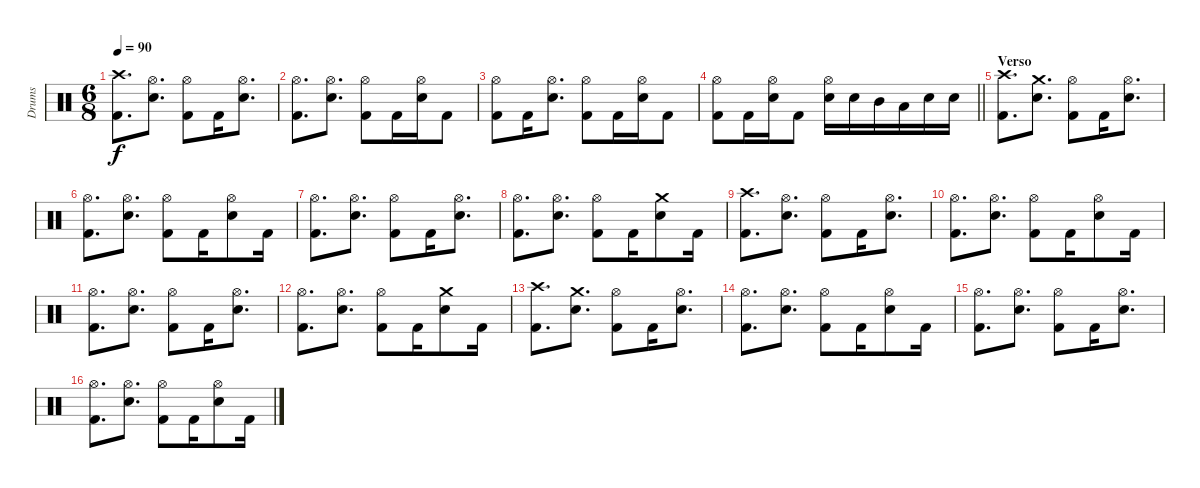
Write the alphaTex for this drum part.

\track ("Drums" "Drums") {instrument percussion}
\staff {score}
\articulation defaults
\ts (6 8)
\section ("" "")
\tempo 90
\clef neutral
\ks c
("Kick (hit) 2" "Crash high (hit)").8{d dy f} ("Electric Snare (hit)" "Hi-Hat (open)").8{d} ("Kick (hit) 2" "Hi-Hat (open)").8 "Kick (hit) 2".16 ("Electric Snare (hit)" "Hi-Hat (open)").8{d} |
("Kick (hit) 2" "Hi-Hat (open)").8{d} ("Electric Snare (hit)" "Hi-Hat (open)").8{d} ("Kick (hit) 2" "Hi-Hat (open)").8 "Kick (hit) 2".16 ("Electric Snare (hit)" "Hi-Hat (open)").16 "Kick (hit) 2".8 |
("Kick (hit) 2" "Hi-Hat (open)").8 "Kick (hit) 2".16 ("Electric Snare (hit)" "Hi-Hat (open)").8{d} ("Kick (hit) 2" "Hi-Hat (open)").8 "Kick (hit) 2".16 ("Electric Snare (hit)" "Hi-Hat (open)").16 "Kick (hit) 2".8 |
\barLineRight lightlight
("Kick (hit) 2" "Hi-Hat (open)").8 "Kick (hit) 2".16 ("Electric Snare (hit)" "Hi-Hat (open)").16 "Kick (hit) 2".8 ("Electric Snare (hit)" "Hi-Hat (open)").16 "Electric Snare (hit)".16 "Mid Tom (hit)".16 "Low Tom (hit)".16 "Electric Snare (hit)".16 "Electric Snare (hit)".16 |
\section ("" "Verso")
("Kick (hit) 2" "Crash high (hit)").8{d} ("Electric Snare (hit)" "Crash medium (hit)").8{d} ("Kick (hit) 2" "Hi-Hat (open)").8 "Kick (hit) 2".16 ("Electric Snare (hit)" "Hi-Hat (open)").8{d} |
("Kick (hit) 2" "Hi-Hat (open)").8{d} ("Electric Snare (hit)" "Hi-Hat (open)").8{d} ("Kick (hit) 2" "Hi-Hat (open)").8 "Kick (hit) 2".16 ("Electric Snare (hit)" "Hi-Hat (open)").8 "Kick (hit) 2".16 |
("Kick (hit) 2" "Hi-Hat (open)").8{d} ("Electric Snare (hit)" "Hi-Hat (open)").8{d} ("Kick (hit) 2" "Hi-Hat (open)").8 "Kick (hit) 2".16 ("Electric Snare (hit)" "Hi-Hat (open)").8{d} |
("Kick (hit) 2" "Hi-Hat (open)").8{d} ("Electric Snare (hit)" "Hi-Hat (open)").8{d} ("Kick (hit) 2" "Hi-Hat (open)").8 "Kick (hit) 2".16 ("Electric Snare (hit)" "Crash medium (hit)").8 "Kick (hit) 2".16 |
("Kick (hit) 2" "Crash high (hit)").8{d} ("Electric Snare (hit)" "Hi-Hat (open)").8{d} ("Kick (hit) 2" "Hi-Hat (open)").8 "Kick (hit) 2".16 ("Electric Snare (hit)" "Hi-Hat (open)").8{d} |
("Kick (hit) 2" "Hi-Hat (open)").8{d} ("Electric Snare (hit)" "Hi-Hat (open)").8{d} ("Kick (hit) 2" "Hi-Hat (open)").8 "Kick (hit) 2".16 ("Electric Snare (hit)" "Hi-Hat (open)").8 "Kick (hit) 2".16 |
("Kick (hit) 2" "Hi-Hat (open)").8{d} ("Electric Snare (hit)" "Hi-Hat (open)").8{d} ("Kick (hit) 2" "Hi-Hat (open)").8 "Kick (hit) 2".16 ("Electric Snare (hit)" "Hi-Hat (open)").8{d} |
("Kick (hit) 2" "Hi-Hat (open)").8{d} ("Electric Snare (hit)" "Hi-Hat (open)").8{d} ("Kick (hit) 2" "Hi-Hat (open)").8 "Kick (hit) 2".16 ("Electric Snare (hit)" "Crash medium (hit)").8 "Kick (hit) 2".16 |
("Kick (hit) 2" "Crash high (hit)").8{d} ("Electric Snare (hit)" "Crash medium (hit)").8{d} ("Kick (hit) 2" "Hi-Hat (open)").8 "Kick (hit) 2".16 ("Electric Snare (hit)" "Hi-Hat (open)").8{d} |
("Kick (hit) 2" "Hi-Hat (open)").8{d} ("Electric Snare (hit)" "Hi-Hat (open)").8{d} ("Kick (hit) 2" "Hi-Hat (open)").8 "Kick (hit) 2".16 ("Electric Snare (hit)" "Hi-Hat (open)").8 "Kick (hit) 2".16 |
("Kick (hit) 2" "Hi-Hat (open)").8{d} ("Electric Snare (hit)" "Hi-Hat (open)").8{d} ("Kick (hit) 2" "Hi-Hat (open)").8 "Kick (hit) 2".16 ("Electric Snare (hit)" "Hi-Hat (open)").8{d} |
("Kick (hit) 2" "Hi-Hat (open)").8{d} ("Electric Snare (hit)" "Hi-Hat (open)").8{d} ("Kick (hit) 2" "Hi-Hat (open)").8 "Kick (hit) 2".16 ("Electric Snare (hit)" "Hi-Hat (open)").8 "Kick (hit) 2".16
